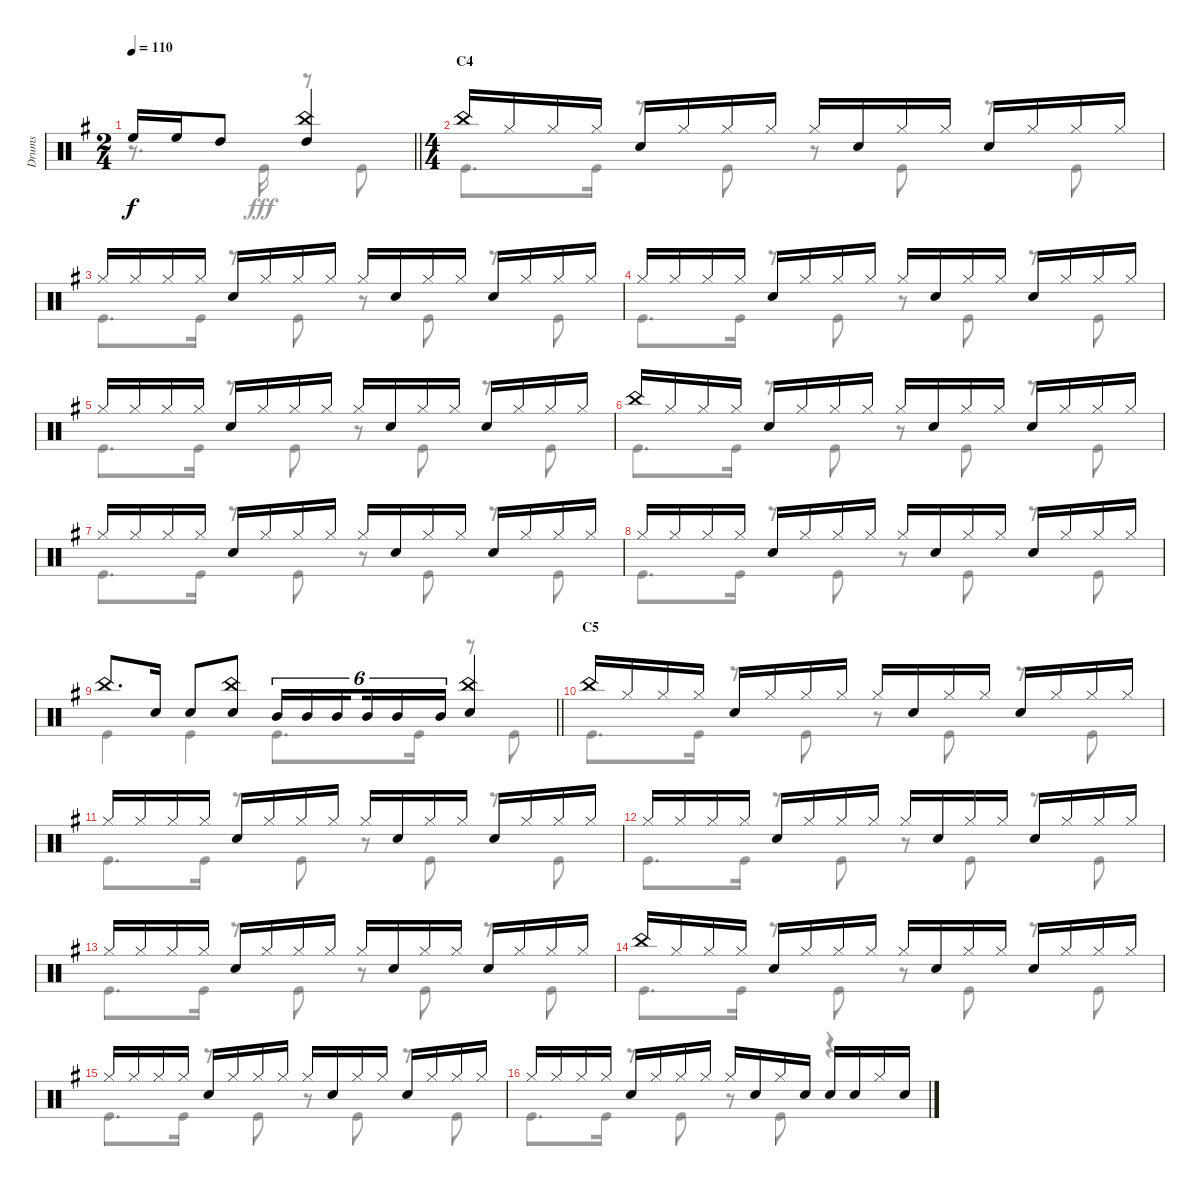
\track ("Drums" "Drums") {instrument percussion}
\staff {score}
\articulation defaults
\voice
\ts (2 4)
\tempo 110
\clef neutral
\barLineRight lightlight
\ks g "High Floor Tom (hit)".16{dy f} "High Floor Tom (hit)".16 "High Tom (hit)".8
("China (hit)" "High Tom (hit)").4 |
\ts (4 4)
\section ("" "C4")
"China (hit)".16 "Hi-Hat (closed)".16 "Hi-Hat (closed)".16 "Hi-Hat (closed)".16 "Snare (hit) 2".16 "Hi-Hat (closed)".16 "Hi-Hat (closed)".16 "Hi-Hat (closed)".16 "Hi-Hat (closed)".16 "Snare (hit) 2".16 "Hi-Hat (closed)".16 "Hi-Hat (closed)".16 "Snare (hit) 2".16 "Hi-Hat (closed)".16 "Hi-Hat (closed)".16 "Hi-Hat (closed)".16 |
"Hi-Hat (closed)".16 "Hi-Hat (closed)".16 "Hi-Hat (closed)".16 "Hi-Hat (closed)".16 "Snare (hit) 2".16 "Hi-Hat (closed)".16 "Hi-Hat (closed)".16 "Hi-Hat (closed)".16 "Hi-Hat (closed)".16 "Snare (hit) 2".16 "Hi-Hat (closed)".16 "Hi-Hat (closed)".16 "Snare (hit) 2".16 "Hi-Hat (closed)".16 "Hi-Hat (closed)".16 "Hi-Hat (closed)".16 |
"Hi-Hat (closed)".16 "Hi-Hat (closed)".16 "Hi-Hat (closed)".16 "Hi-Hat (closed)".16 "Snare (hit) 2".16 "Hi-Hat (closed)".16 "Hi-Hat (closed)".16 "Hi-Hat (closed)".16 "Hi-Hat (closed)".16 "Snare (hit) 2".16 "Hi-Hat (closed)".16 "Hi-Hat (closed)".16 "Snare (hit) 2".16 "Hi-Hat (closed)".16 "Hi-Hat (closed)".16 "Hi-Hat (closed)".16 |
"Hi-Hat (closed)".16 "Hi-Hat (closed)".16 "Hi-Hat (closed)".16 "Hi-Hat (closed)".16 "Snare (hit) 2".16 "Hi-Hat (closed)".16 "Hi-Hat (closed)".16 "Hi-Hat (closed)".16 "Hi-Hat (closed)".16 "Snare (hit) 2".16 "Hi-Hat (closed)".16 "Hi-Hat (closed)".16 "Snare (hit) 2".16 "Hi-Hat (closed)".16 "Hi-Hat (closed)".16 "Hi-Hat (closed)".16 |
"China (hit)".16 "Hi-Hat (closed)".16 "Hi-Hat (closed)".16 "Hi-Hat (closed)".16 "Snare (hit) 2".16 "Hi-Hat (closed)".16 "Hi-Hat (closed)".16 "Hi-Hat (closed)".16 "Hi-Hat (closed)".16 "Snare (hit) 2".16 "Hi-Hat (closed)".16 "Hi-Hat (closed)".16 "Snare (hit) 2".16 "Hi-Hat (closed)".16 "Hi-Hat (closed)".16 "Hi-Hat (closed)".16 |
"Hi-Hat (closed)".16 "Hi-Hat (closed)".16 "Hi-Hat (closed)".16 "Hi-Hat (closed)".16 "Snare (hit) 2".16 "Hi-Hat (closed)".16 "Hi-Hat (closed)".16 "Hi-Hat (closed)".16 "Hi-Hat (closed)".16 "Snare (hit) 2".16 "Hi-Hat (closed)".16 "Hi-Hat (closed)".16 "Snare (hit) 2".16 "Hi-Hat (closed)".16 "Hi-Hat (closed)".16 "Hi-Hat (closed)".16 |
"Hi-Hat (closed)".16 "Hi-Hat (closed)".16 "Hi-Hat (closed)".16 "Hi-Hat (closed)".16 "Snare (hit) 2".16 "Hi-Hat (closed)".16 "Hi-Hat (closed)".16 "Hi-Hat (closed)".16 "Hi-Hat (closed)".16 "Snare (hit) 2".16 "Hi-Hat (closed)".16 "Hi-Hat (closed)".16 "Snare (hit) 2".16 "Hi-Hat (closed)".16 "Hi-Hat (closed)".16 "Hi-Hat (closed)".16 |
\barLineRight lightlight "China (hit)".8{d} "Snare (hit) 2".16 "Snare (hit) 2".8
("China (hit)" "Snare (hit) 2").8 "Mid Tom (hit)".16{tu (6 4)} "Mid Tom (hit)".16{tu (6 4)} "Mid Tom (hit)".16{tu (6 4) beam splitsecondary} "Mid Tom (hit)".16{tu (6 4)} "Mid Tom (hit)".16{tu (6 4)} "Mid Tom (hit)".16{tu (6 4)} ("China (hit)" "Snare (hit) 2").4 |
\section ("" "C5")
"China (hit)".16 "Hi-Hat (closed)".16 "Hi-Hat (closed)".16 "Hi-Hat (closed)".16 "Snare (hit) 2".16 "Hi-Hat (closed)".16 "Hi-Hat (closed)".16 "Hi-Hat (closed)".16 "Hi-Hat (closed)".16 "Snare (hit) 2".16 "Hi-Hat (closed)".16 "Hi-Hat (closed)".16 "Snare (hit) 2".16 "Hi-Hat (closed)".16 "Hi-Hat (closed)".16 "Hi-Hat (closed)".16 |
"Hi-Hat (closed)".16 "Hi-Hat (closed)".16 "Hi-Hat (closed)".16 "Hi-Hat (closed)".16 "Snare (hit) 2".16 "Hi-Hat (closed)".16 "Hi-Hat (closed)".16 "Hi-Hat (closed)".16 "Hi-Hat (closed)".16 "Snare (hit) 2".16 "Hi-Hat (closed)".16 "Hi-Hat (closed)".16 "Snare (hit) 2".16 "Hi-Hat (closed)".16 "Hi-Hat (closed)".16 "Hi-Hat (closed)".16 |
"Hi-Hat (closed)".16 "Hi-Hat (closed)".16 "Hi-Hat (closed)".16 "Hi-Hat (closed)".16 "Snare (hit) 2".16 "Hi-Hat (closed)".16 "Hi-Hat (closed)".16 "Hi-Hat (closed)".16 "Hi-Hat (closed)".16 "Snare (hit) 2".16 "Hi-Hat (closed)".16 "Hi-Hat (closed)".16 "Snare (hit) 2".16 "Hi-Hat (closed)".16 "Hi-Hat (closed)".16 "Hi-Hat (closed)".16 |
"Hi-Hat (closed)".16 "Hi-Hat (closed)".16 "Hi-Hat (closed)".16 "Hi-Hat (closed)".16 "Snare (hit) 2".16 "Hi-Hat (closed)".16 "Hi-Hat (closed)".16 "Hi-Hat (closed)".16 "Hi-Hat (closed)".16 "Snare (hit) 2".16 "Hi-Hat (closed)".16 "Hi-Hat (closed)".16 "Snare (hit) 2".16 "Hi-Hat (closed)".16 "Hi-Hat (closed)".16 "Hi-Hat (closed)".16 |
"China (hit)".16 "Hi-Hat (closed)".16 "Hi-Hat (closed)".16 "Hi-Hat (closed)".16 "Snare (hit) 2".16 "Hi-Hat (closed)".16 "Hi-Hat (closed)".16 "Hi-Hat (closed)".16 "Hi-Hat (closed)".16 "Snare (hit) 2".16 "Hi-Hat (closed)".16 "Hi-Hat (closed)".16 "Snare (hit) 2".16 "Hi-Hat (closed)".16 "Hi-Hat (closed)".16 "Hi-Hat (closed)".16 |
"Hi-Hat (closed)".16 "Hi-Hat (closed)".16 "Hi-Hat (closed)".16 "Hi-Hat (closed)".16 "Snare (hit) 2".16 "Hi-Hat (closed)".16 "Hi-Hat (closed)".16 "Hi-Hat (closed)".16 "Hi-Hat (closed)".16 "Snare (hit) 2".16 "Hi-Hat (closed)".16 "Hi-Hat (closed)".16 "Snare (hit) 2".16 "Hi-Hat (closed)".16 "Hi-Hat (closed)".16 "Hi-Hat (closed)".16 |
"Hi-Hat (closed)".16 "Hi-Hat (closed)".16 "Hi-Hat (closed)".16 "Hi-Hat (closed)".16 "Snare (hit) 2".16 "Hi-Hat (closed)".16 "Hi-Hat (closed)".16 "Hi-Hat (closed)".16 "Hi-Hat (closed)".16 "Snare (hit) 2".16 "Hi-Hat (closed)".16 "Snare (hit) 2".16 "Snare (hit) 2".16 "Snare (hit) 2".16 "Hi-Hat (closed)".16 "Snare (hit) 2".16
\voice
\clef neutral
\ottava regular
\simile none
\barLineRight lightlight
\ks g
r.8{d dy fff} "Kick (hit)".16 r.8 "Kick (hit)".8 |
"Kick (hit)".8{d} "Kick (hit)".16 r.8 "Kick (hit)".8 r.8 "Kick (hit)".8 r.8 "Kick (hit)".8 |
"Kick (hit)".8{d} "Kick (hit)".16 r.8 "Kick (hit)".8 r.8 "Kick (hit)".8 r.8 "Kick (hit)".8 |
"Kick (hit)".8{d} "Kick (hit)".16 r.8 "Kick (hit)".8 r.8 "Kick (hit)".8 r.8 "Kick (hit)".8 |
"Kick (hit)".8{d} "Kick (hit)".16 r.8 "Kick (hit)".8 r.8 "Kick (hit)".8 r.8 "Kick (hit)".8 |
"Kick (hit)".8{d} "Kick (hit)".16 r.8 "Kick (hit)".8 r.8 "Kick (hit)".8 r.8 "Kick (hit)".8 |
"Kick (hit)".8{d} "Kick (hit)".16 r.8 "Kick (hit)".8 r.8 "Kick (hit)".8 r.8 "Kick (hit)".8 |
"Kick (hit)".8{d} "Kick (hit)".16 r.8 "Kick (hit)".8 r.8 "Kick (hit)".8 r.8 "Kick (hit)".8 |
\barLineRight lightlight "Kick (hit)".4 "Kick (hit)".4 "Kick (hit)".8{d} "Kick (hit)".16
r.8 "Kick (hit)".8 |
"Kick (hit)".8{d} "Kick (hit)".16 r.8 "Kick (hit)".8 r.8 "Kick (hit)".8 r.8 "Kick (hit)".8 |
"Kick (hit)".8{d} "Kick (hit)".16 r.8 "Kick (hit)".8 r.8 "Kick (hit)".8 r.8 "Kick (hit)".8 |
"Kick (hit)".8{d} "Kick (hit)".16 r.8 "Kick (hit)".8 r.8 "Kick (hit)".8 r.8 "Kick (hit)".8 |
"Kick (hit)".8{d} "Kick (hit)".16 r.8 "Kick (hit)".8 r.8 "Kick (hit)".8 r.8 "Kick (hit)".8 |
"Kick (hit)".8{d} "Kick (hit)".16 r.8 "Kick (hit)".8 r.8 "Kick (hit)".8 r.8 "Kick (hit)".8 |
"Kick (hit)".8{d} "Kick (hit)".16 r.8 "Kick (hit)".8 r.8 "Kick (hit)".8 r.8 "Kick (hit)".8 |
"Kick (hit)".8{d} "Kick (hit)".16 r.8 "Kick (hit)".8 r.8 "Kick (hit)".8 r.4
